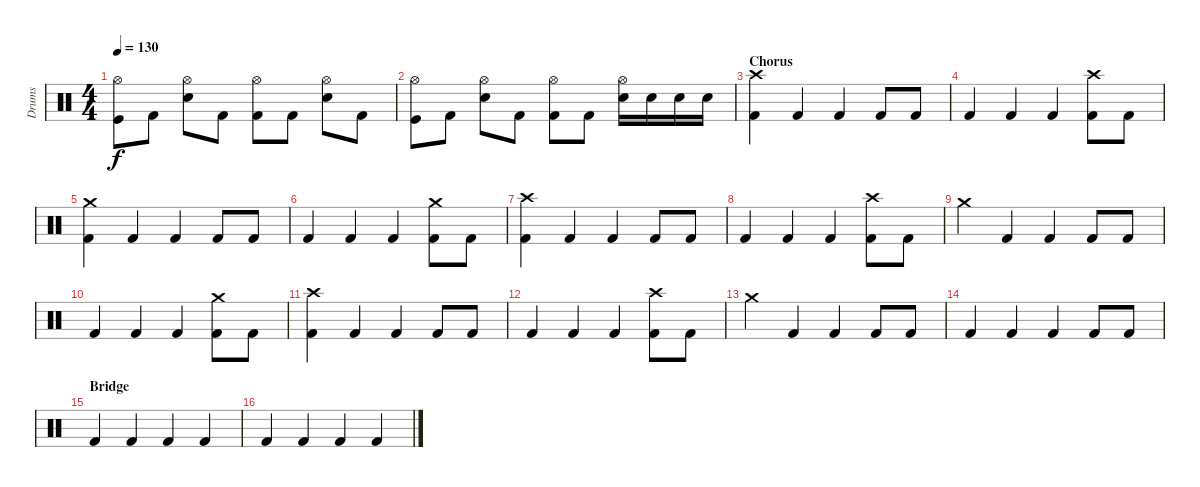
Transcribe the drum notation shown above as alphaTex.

\track ("Drums" "Drums") {instrument percussion}
\staff {score}
\articulation defaults
\ts (4 4)
\tempo 130
\clef neutral
\ks c
("Hi-Hat (open)" "Kick (hit)").8{dy f} "Kick (hit) 2".8 ("Hi-Hat (open)" "Electric Snare (hit)").8 "Kick (hit) 2".8 ("Hi-Hat (open)" "Kick (hit) 2").8 "Kick (hit) 2".8 ("Hi-Hat (open)" "Electric Snare (hit)").8 "Kick (hit) 2".8 |
("Hi-Hat (open)" "Kick (hit)").8 "Kick (hit) 2".8 ("Hi-Hat (open)" "Electric Snare (hit)").8 "Kick (hit) 2".8 ("Hi-Hat (open)" "Kick (hit) 2").8 "Kick (hit) 2".8 ("Hi-Hat (open)" "Electric Snare (hit)").16 "Electric Snare (hit)".16 "Electric Snare (hit)".16 "Electric Snare (hit)".16 |
\section ("" "Chorus")
("Crash high (hit)" "Kick (hit) 2").4 "Kick (hit) 2".4 "Kick (hit) 2".4 "Kick (hit) 2".8 "Kick (hit) 2".8 |
"Kick (hit) 2".4 "Kick (hit) 2".4 "Kick (hit) 2".4 ("Crash high (hit)" "Kick (hit) 2").8 "Kick (hit) 2".8 |
("Crash medium (hit)" "Kick (hit) 2").4 "Kick (hit) 2".4 "Kick (hit) 2".4 "Kick (hit) 2".8 "Kick (hit) 2".8 |
"Kick (hit) 2".4 "Kick (hit) 2".4 "Kick (hit) 2".4 ("Crash medium (hit)" "Kick (hit) 2").8 "Kick (hit) 2".8 |
("Crash high (hit)" "Kick (hit) 2").4 "Kick (hit) 2".4 "Kick (hit) 2".4 "Kick (hit) 2".8 "Kick (hit) 2".8 |
"Kick (hit) 2".4 "Kick (hit) 2".4 "Kick (hit) 2".4 ("Crash high (hit)" "Kick (hit) 2").8 "Kick (hit) 2".8 |
"Crash medium (hit)".4 "Kick (hit) 2".4 "Kick (hit) 2".4 "Kick (hit) 2".8 "Kick (hit) 2".8 |
"Kick (hit) 2".4 "Kick (hit) 2".4 "Kick (hit) 2".4 ("Crash medium (hit)" "Kick (hit) 2").8 "Kick (hit) 2".8 |
("Crash high (hit)" "Kick (hit) 2").4 "Kick (hit) 2".4 "Kick (hit) 2".4 "Kick (hit) 2".8 "Kick (hit) 2".8 |
"Kick (hit) 2".4 "Kick (hit) 2".4 "Kick (hit) 2".4 ("Crash high (hit)" "Kick (hit) 2").8 "Kick (hit) 2".8 |
"Crash medium (hit)".4 "Kick (hit) 2".4 "Kick (hit) 2".4 "Kick (hit) 2".8 "Kick (hit) 2".8 |
"Kick (hit) 2".4 "Kick (hit) 2".4 "Kick (hit) 2".4 "Kick (hit) 2".8 "Kick (hit) 2".8 |
\section ("" "Bridge")
"Kick (hit) 2".4 "Kick (hit) 2".4 "Kick (hit) 2".4 "Kick (hit) 2".4 |
"Kick (hit) 2".4 "Kick (hit) 2".4 "Kick (hit) 2".4 "Kick (hit) 2".4
